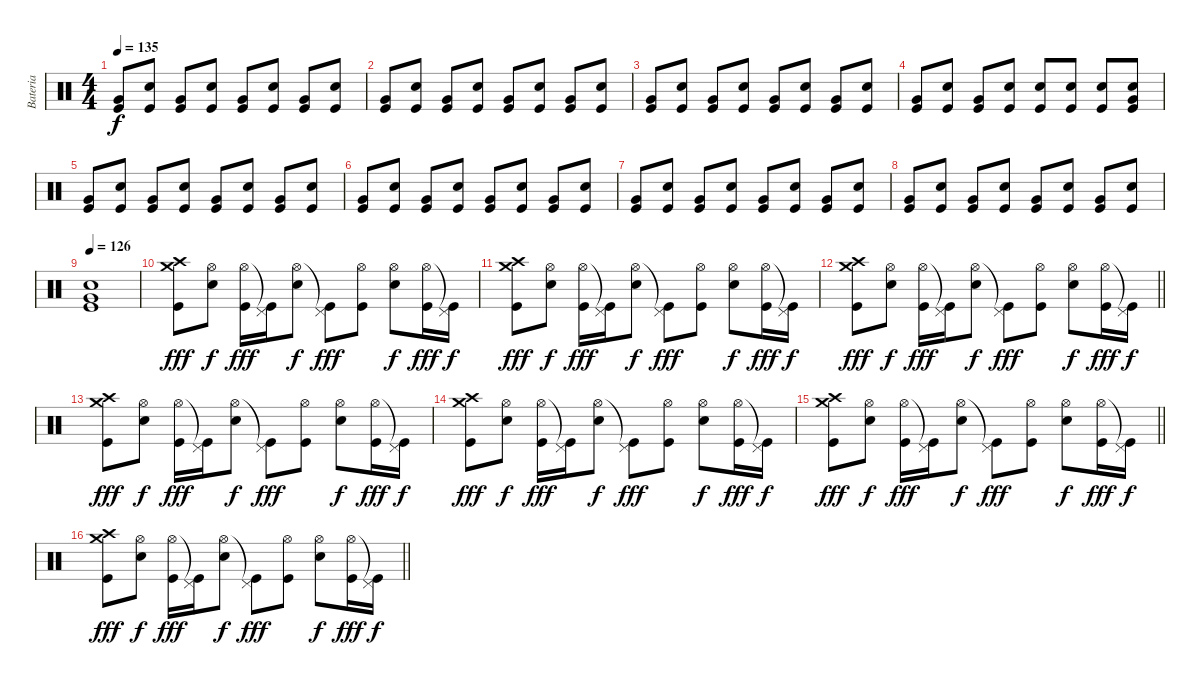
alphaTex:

\track ("Bateria" "Bateria") {instrument percussion}
\staff {score}
\articulation defaults
\ts (4 4)
\tempo 135
\clef neutral
\ks c
("Very Low Tom (hit)" "Kick (hit)").8{dy f} ("Electric Snare (hit)" "Kick (hit)").8 ("Very Low Tom (hit)" "Kick (hit)").8 ("Electric Snare (hit)" "Kick (hit)").8 ("Very Low Tom (hit)" "Kick (hit)").8 ("Electric Snare (hit)" "Kick (hit)").8 ("Very Low Tom (hit)" "Kick (hit)").8 ("Electric Snare (hit)" "Kick (hit)").8 |
("Very Low Tom (hit)" "Kick (hit)").8 ("Electric Snare (hit)" "Kick (hit)").8 ("Very Low Tom (hit)" "Kick (hit)").8 ("Electric Snare (hit)" "Kick (hit)").8 ("Very Low Tom (hit)" "Kick (hit)").8 ("Electric Snare (hit)" "Kick (hit)").8 ("Very Low Tom (hit)" "Kick (hit)").8 ("Electric Snare (hit)" "Kick (hit)").8 |
("Very Low Tom (hit)" "Kick (hit)").8 ("Electric Snare (hit)" "Kick (hit)").8 ("Very Low Tom (hit)" "Kick (hit)").8 ("Electric Snare (hit)" "Kick (hit)").8 ("Very Low Tom (hit)" "Kick (hit)").8 ("Electric Snare (hit)" "Kick (hit)").8 ("Very Low Tom (hit)" "Kick (hit)").8 ("Electric Snare (hit)" "Kick (hit)").8 |
("Very Low Tom (hit)" "Kick (hit)").8 ("Electric Snare (hit)" "Kick (hit)").8 ("Very Low Tom (hit)" "Kick (hit)").8 ("Electric Snare (hit)" "Kick (hit)").8 ("Electric Snare (hit)" "Kick (hit)").8 ("Electric Snare (hit)" "Kick (hit)").8 ("Electric Snare (hit)" "Kick (hit)").8 ("Very Low Tom (hit)" "Electric Snare (hit)" "Kick (hit)").8 |
("Very Low Tom (hit)" "Kick (hit)").8 ("Electric Snare (hit)" "Kick (hit)").8 ("Very Low Tom (hit)" "Kick (hit)").8 ("Electric Snare (hit)" "Kick (hit)").8 ("Very Low Tom (hit)" "Kick (hit)").8 ("Electric Snare (hit)" "Kick (hit)").8 ("Very Low Tom (hit)" "Kick (hit)").8 ("Electric Snare (hit)" "Kick (hit)").8 |
("Very Low Tom (hit)" "Kick (hit)").8 ("Electric Snare (hit)" "Kick (hit)").8 ("Very Low Tom (hit)" "Kick (hit)").8 ("Electric Snare (hit)" "Kick (hit)").8 ("Very Low Tom (hit)" "Kick (hit)").8 ("Electric Snare (hit)" "Kick (hit)").8 ("Very Low Tom (hit)" "Kick (hit)").8 ("Electric Snare (hit)" "Kick (hit)").8 |
("Very Low Tom (hit)" "Kick (hit)").8 ("Electric Snare (hit)" "Kick (hit)").8 ("Very Low Tom (hit)" "Kick (hit)").8 ("Electric Snare (hit)" "Kick (hit)").8 ("Very Low Tom (hit)" "Kick (hit)").8 ("Electric Snare (hit)" "Kick (hit)").8 ("Very Low Tom (hit)" "Kick (hit)").8 ("Electric Snare (hit)" "Kick (hit)").8 |
("Very Low Tom (hit)" "Kick (hit)").8 ("Electric Snare (hit)" "Kick (hit)").8 ("Very Low Tom (hit)" "Kick (hit)").8 ("Electric Snare (hit)" "Kick (hit)").8 ("Very Low Tom (hit)" "Kick (hit)").8 ("Electric Snare (hit)" "Kick (hit)").8 ("Very Low Tom (hit)" "Kick (hit)").8 ("Electric Snare (hit)" "Kick (hit)").8 |
\tempo 126
("Very Low Tom (hit)" "Electric Snare (hit)" "Kick (hit)").1 |
("Crash high (hit)" "Crash medium (hit)" "Kick (hit)").8{dy fff} ("Hi-Hat (open)" "Electric Snare (hit)").8{dy f} ("Hi-Hat (open)" "Kick (hit)").16{dy fff} ("Pedal Hi-Hat (hit)"{t} "Kick (hit)").16 ("Hi-Hat (open)" "Electric Snare (hit)").8{dy f} ("Pedal Hi-Hat (hit)"{t} "Kick (hit)").8{dy fff} ("Hi-Hat (open)" "Kick (hit)").8 ("Hi-Hat (open)" "Electric Snare (hit)").8{dy f} ("Hi-Hat (open)" "Kick (hit)").16{dy fff} ("Pedal Hi-Hat (hit)"{t} "Kick (hit)").16{dy f} |
("Crash high (hit)" "Crash medium (hit)" "Kick (hit)").8{dy fff} ("Hi-Hat (open)" "Electric Snare (hit)").8{dy f} ("Hi-Hat (open)" "Kick (hit)").16{dy fff} ("Pedal Hi-Hat (hit)"{t} "Kick (hit)").16 ("Hi-Hat (open)" "Electric Snare (hit)").8{dy f} ("Pedal Hi-Hat (hit)"{t} "Kick (hit)").8{dy fff} ("Hi-Hat (open)" "Kick (hit)").8 ("Hi-Hat (open)" "Electric Snare (hit)").8{dy f} ("Hi-Hat (open)" "Kick (hit)").16{dy fff} ("Pedal Hi-Hat (hit)"{t} "Kick (hit)").16{dy f} |
\barLineRight lightlight
("Crash high (hit)" "Crash medium (hit)" "Kick (hit)").8{dy fff} ("Hi-Hat (open)" "Electric Snare (hit)").8{dy f} ("Hi-Hat (open)" "Kick (hit)").16{dy fff} ("Pedal Hi-Hat (hit)"{t} "Kick (hit)").16 ("Hi-Hat (open)" "Electric Snare (hit)").8{dy f} ("Pedal Hi-Hat (hit)"{t} "Kick (hit)").8{dy fff} ("Hi-Hat (open)" "Kick (hit)").8 ("Hi-Hat (open)" "Electric Snare (hit)").8{dy f} ("Hi-Hat (open)" "Kick (hit)").16{dy fff} ("Pedal Hi-Hat (hit)"{t} "Kick (hit)").16{dy f} |
("Crash high (hit)" "Crash medium (hit)" "Kick (hit)").8{dy fff} ("Hi-Hat (open)" "Electric Snare (hit)").8{dy f} ("Hi-Hat (open)" "Kick (hit)").16{dy fff} ("Pedal Hi-Hat (hit)"{t} "Kick (hit)").16 ("Hi-Hat (open)" "Electric Snare (hit)").8{dy f} ("Pedal Hi-Hat (hit)"{t} "Kick (hit)").8{dy fff} ("Hi-Hat (open)" "Kick (hit)").8 ("Hi-Hat (open)" "Electric Snare (hit)").8{dy f} ("Hi-Hat (open)" "Kick (hit)").16{dy fff} ("Pedal Hi-Hat (hit)"{t} "Kick (hit)").16{dy f} |
("Crash high (hit)" "Crash medium (hit)" "Kick (hit)").8{dy fff} ("Hi-Hat (open)" "Electric Snare (hit)").8{dy f} ("Hi-Hat (open)" "Kick (hit)").16{dy fff} ("Pedal Hi-Hat (hit)"{t} "Kick (hit)").16 ("Hi-Hat (open)" "Electric Snare (hit)").8{dy f} ("Pedal Hi-Hat (hit)"{t} "Kick (hit)").8{dy fff} ("Hi-Hat (open)" "Kick (hit)").8 ("Hi-Hat (open)" "Electric Snare (hit)").8{dy f} ("Hi-Hat (open)" "Kick (hit)").16{dy fff} ("Pedal Hi-Hat (hit)"{t} "Kick (hit)").16{dy f} |
\barLineRight lightlight
("Crash high (hit)" "Crash medium (hit)" "Kick (hit)").8{dy fff} ("Hi-Hat (open)" "Electric Snare (hit)").8{dy f} ("Hi-Hat (open)" "Kick (hit)").16{dy fff} ("Pedal Hi-Hat (hit)"{t} "Kick (hit)").16 ("Hi-Hat (open)" "Electric Snare (hit)").8{dy f} ("Pedal Hi-Hat (hit)"{t} "Kick (hit)").8{dy fff} ("Hi-Hat (open)" "Kick (hit)").8 ("Hi-Hat (open)" "Electric Snare (hit)").8{dy f} ("Hi-Hat (open)" "Kick (hit)").16{dy fff} ("Pedal Hi-Hat (hit)"{t} "Kick (hit)").16{dy f} |
\barLineRight lightlight
("Crash high (hit)" "Crash medium (hit)" "Kick (hit)").8{dy fff} ("Hi-Hat (open)" "Electric Snare (hit)").8{dy f} ("Hi-Hat (open)" "Kick (hit)").16{dy fff} ("Pedal Hi-Hat (hit)"{t} "Kick (hit)").16 ("Hi-Hat (open)" "Electric Snare (hit)").8{dy f} ("Pedal Hi-Hat (hit)"{t} "Kick (hit)").8{dy fff} ("Hi-Hat (open)" "Kick (hit)").8 ("Hi-Hat (open)" "Electric Snare (hit)").8{dy f} ("Hi-Hat (open)" "Kick (hit)").16{dy fff} ("Pedal Hi-Hat (hit)"{t} "Kick (hit)").16{dy f}
